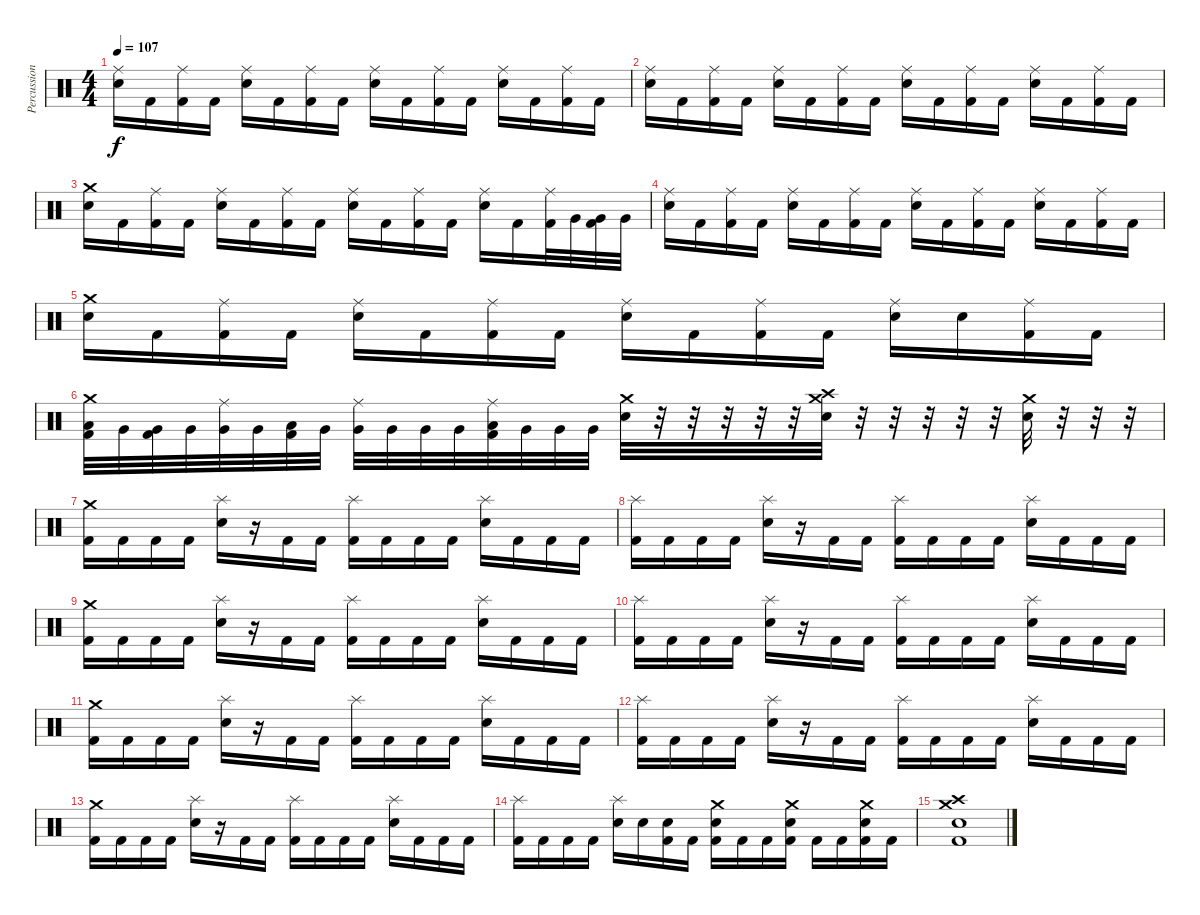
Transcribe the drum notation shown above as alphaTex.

\track ("Percussion" "Percussion") {instrument percussion}
\staff {score}
\articulation defaults
\ts (4 4)
\tempo 107
\clef neutral
\ks c
("Ride (middle)" "Electric Snare (hit)").16{dy f} "Kick (hit) 2".16 ("Ride (middle)" "Kick (hit) 2").16 "Kick (hit) 2".16 ("Ride (middle)" "Electric Snare (hit)").16 "Kick (hit) 2".16 ("Ride (middle)" "Kick (hit) 2").16 "Kick (hit) 2".16 ("Ride (middle)" "Electric Snare (hit)").16 "Kick (hit) 2".16 ("Ride (middle)" "Kick (hit) 2").16 "Kick (hit) 2".16 ("Ride (middle)" "Electric Snare (hit)").16 "Kick (hit) 2".16 ("Ride (middle)" "Kick (hit) 2").16 "Kick (hit) 2".16 |
("Ride (middle)" "Electric Snare (hit)").16 "Kick (hit) 2".16 ("Ride (middle)" "Kick (hit) 2").16 "Kick (hit) 2".16 ("Ride (middle)" "Electric Snare (hit)").16 "Kick (hit) 2".16 ("Ride (middle)" "Kick (hit) 2").16 "Kick (hit) 2".16 ("Ride (middle)" "Electric Snare (hit)").16 "Kick (hit) 2".16 ("Ride (middle)" "Kick (hit) 2").16 "Kick (hit) 2".16 ("Ride (middle)" "Electric Snare (hit)").16 "Kick (hit) 2".16 ("Ride (middle)" "Kick (hit) 2").16 "Kick (hit) 2".16 |
("Crash medium (hit)" "Electric Snare (hit)").16 "Kick (hit) 2".16 ("Ride (middle)" "Kick (hit) 2").16 "Kick (hit) 2".16 ("Ride (middle)" "Electric Snare (hit)").16 "Kick (hit) 2".16 ("Ride (middle)" "Kick (hit) 2").16 "Kick (hit) 2".16 ("Ride (middle)" "Electric Snare (hit)").16 "Kick (hit) 2".16 ("Ride (middle)" "Kick (hit) 2").16 "Kick (hit) 2".16 ("Ride (middle)" "Electric Snare (hit)").16 "Kick (hit) 2".16 ("Ride (middle)" "Kick (hit) 2").32 "Very Low Tom (hit)".32 ("Very Low Tom (hit)" "Kick (hit) 2").32 "Very Low Tom (hit)".32 |
("Ride (middle)" "Electric Snare (hit)").16 "Kick (hit) 2".16 ("Ride (middle)" "Kick (hit) 2").16 "Kick (hit) 2".16 ("Ride (middle)" "Electric Snare (hit)").16 "Kick (hit) 2".16 ("Ride (middle)" "Kick (hit) 2").16 "Kick (hit) 2".16 ("Ride (middle)" "Electric Snare (hit)").16 "Kick (hit) 2".16 ("Ride (middle)" "Kick (hit) 2").16 "Kick (hit) 2".16 ("Ride (middle)" "Electric Snare (hit)").16 "Kick (hit) 2".16 ("Ride (middle)" "Kick (hit) 2").16 "Kick (hit) 2".16 |
("Crash medium (hit)" "Electric Snare (hit)").16 "Kick (hit) 2".16 ("Ride (middle)" "Kick (hit) 2").16 "Kick (hit) 2".16 ("Ride (middle)" "Electric Snare (hit)").16 "Kick (hit) 2".16 ("Ride (middle)" "Kick (hit) 2").16 "Kick (hit) 2".16 ("Ride (middle)" "Electric Snare (hit)").16 "Kick (hit) 2".16 ("Ride (middle)" "Kick (hit) 2").16 "Kick (hit) 2".16 ("Ride (middle)" "Electric Snare (hit)").16 "Electric Snare (hit)".16 ("Ride (middle)" "Kick (hit) 2").16 "Kick (hit) 2".16 |
("Crash medium (hit)" "Low Tom (hit)" "Kick (hit) 2").32 "Very Low Tom (hit)".32 ("Very Low Tom (hit)" "Kick (hit) 2").32 "Very Low Tom (hit)".32 ("Ride (middle)" "Very Low Tom (hit)").32 "Very Low Tom (hit)".32 ("Low Tom (hit)" "Kick (hit) 2").32 "Very Low Tom (hit)".32 ("Ride (middle)" "Very Low Tom (hit)").32 "Very Low Tom (hit)".32 "Very Low Tom (hit)".32 "Very Low Tom (hit)".32 ("Ride (middle)" "Low Tom (hit)" "Kick (hit) 2").32 "Very Low Tom (hit)".32 "Very Low Tom (hit)".32 "Very Low Tom (hit)".32 ("Crash medium (hit)" "Electric Snare (hit)").32 r.32 r.32 r.32 r.32 r.32 ("Crash medium (hit)" "Crash high (hit)" "Electric Snare (hit)").32 r.32 r.32 r.32 r.32 r.32 ("Crash medium (hit)" "Electric Snare (hit)").32 r.32 r.32 r.32 |
("Crash medium (hit)" "Kick (hit) 2").16 "Kick (hit) 2".16 "Kick (hit) 2".16 "Kick (hit) 2".16 ("Splash (hit)" "Electric Snare (hit)").16 r.16 "Kick (hit) 2".16 "Kick (hit) 2".16 ("Splash (hit)" "Kick (hit) 2").16 "Kick (hit) 2".16 "Kick (hit) 2".16 "Kick (hit) 2".16 ("Splash (hit)" "Electric Snare (hit)").16 "Kick (hit) 2".16 "Kick (hit) 2".16 "Kick (hit) 2".16 |
("Splash (hit)" "Kick (hit) 2").16 "Kick (hit) 2".16 "Kick (hit) 2".16 "Kick (hit) 2".16 ("Splash (hit)" "Electric Snare (hit)").16 r.16 "Kick (hit) 2".16 "Kick (hit) 2".16 ("Splash (hit)" "Kick (hit) 2").16 "Kick (hit) 2".16 "Kick (hit) 2".16 "Kick (hit) 2".16 ("Splash (hit)" "Electric Snare (hit)").16 "Kick (hit) 2".16 "Kick (hit) 2".16 "Kick (hit) 2".16 |
("Crash medium (hit)" "Kick (hit) 2").16 "Kick (hit) 2".16 "Kick (hit) 2".16 "Kick (hit) 2".16 ("Splash (hit)" "Electric Snare (hit)").16 r.16 "Kick (hit) 2".16 "Kick (hit) 2".16 ("Splash (hit)" "Kick (hit) 2").16 "Kick (hit) 2".16 "Kick (hit) 2".16 "Kick (hit) 2".16 ("Splash (hit)" "Electric Snare (hit)").16 "Kick (hit) 2".16 "Kick (hit) 2".16 "Kick (hit) 2".16 |
("Splash (hit)" "Kick (hit) 2").16 "Kick (hit) 2".16 "Kick (hit) 2".16 "Kick (hit) 2".16 ("Splash (hit)" "Electric Snare (hit)").16 r.16 "Kick (hit) 2".16 "Kick (hit) 2".16 ("Splash (hit)" "Kick (hit) 2").16 "Kick (hit) 2".16 "Kick (hit) 2".16 "Kick (hit) 2".16 ("Splash (hit)" "Electric Snare (hit)").16 "Kick (hit) 2".16 "Kick (hit) 2".16 "Kick (hit) 2".16 |
("Crash medium (hit)" "Kick (hit) 2").16 "Kick (hit) 2".16 "Kick (hit) 2".16 "Kick (hit) 2".16 ("Splash (hit)" "Electric Snare (hit)").16 r.16 "Kick (hit) 2".16 "Kick (hit) 2".16 ("Splash (hit)" "Kick (hit) 2").16 "Kick (hit) 2".16 "Kick (hit) 2".16 "Kick (hit) 2".16 ("Splash (hit)" "Electric Snare (hit)").16 "Kick (hit) 2".16 "Kick (hit) 2".16 "Kick (hit) 2".16 |
("Splash (hit)" "Kick (hit) 2").16 "Kick (hit) 2".16 "Kick (hit) 2".16 "Kick (hit) 2".16 ("Splash (hit)" "Electric Snare (hit)").16 r.16 "Kick (hit) 2".16 "Kick (hit) 2".16 ("Splash (hit)" "Kick (hit) 2").16 "Kick (hit) 2".16 "Kick (hit) 2".16 "Kick (hit) 2".16 ("Splash (hit)" "Electric Snare (hit)").16 "Kick (hit) 2".16 "Kick (hit) 2".16 "Kick (hit) 2".16 |
("Crash medium (hit)" "Kick (hit) 2").16 "Kick (hit) 2".16 "Kick (hit) 2".16 "Kick (hit) 2".16 ("Splash (hit)" "Electric Snare (hit)").16 r.16 "Kick (hit) 2".16 "Kick (hit) 2".16 ("Splash (hit)" "Kick (hit) 2").16 "Kick (hit) 2".16 "Kick (hit) 2".16 "Kick (hit) 2".16 ("Splash (hit)" "Electric Snare (hit)").16 "Kick (hit) 2".16 "Kick (hit) 2".16 "Kick (hit) 2".16 |
("Splash (hit)" "Kick (hit) 2").16 "Kick (hit) 2".16 "Kick (hit) 2".16 "Kick (hit) 2".16 ("Splash (hit)" "Electric Snare (hit)").16 "Electric Snare (hit)".16 ("Electric Snare (hit)" "Kick (hit) 2").16 "Kick (hit) 2".16 ("Crash medium (hit)" "Electric Snare (hit)" "Kick (hit) 2").16 "Kick (hit) 2".16 "Kick (hit) 2".16 ("Crash medium (hit)" "Electric Snare (hit)" "Kick (hit) 2").16 "Kick (hit) 2".16 "Kick (hit) 2".16 ("Crash medium (hit)" "Electric Snare (hit)" "Kick (hit) 2").16 "Kick (hit) 2".16 |
("Crash medium (hit)" "Crash high (hit)" "Electric Snare (hit)" "Kick (hit) 2").1
